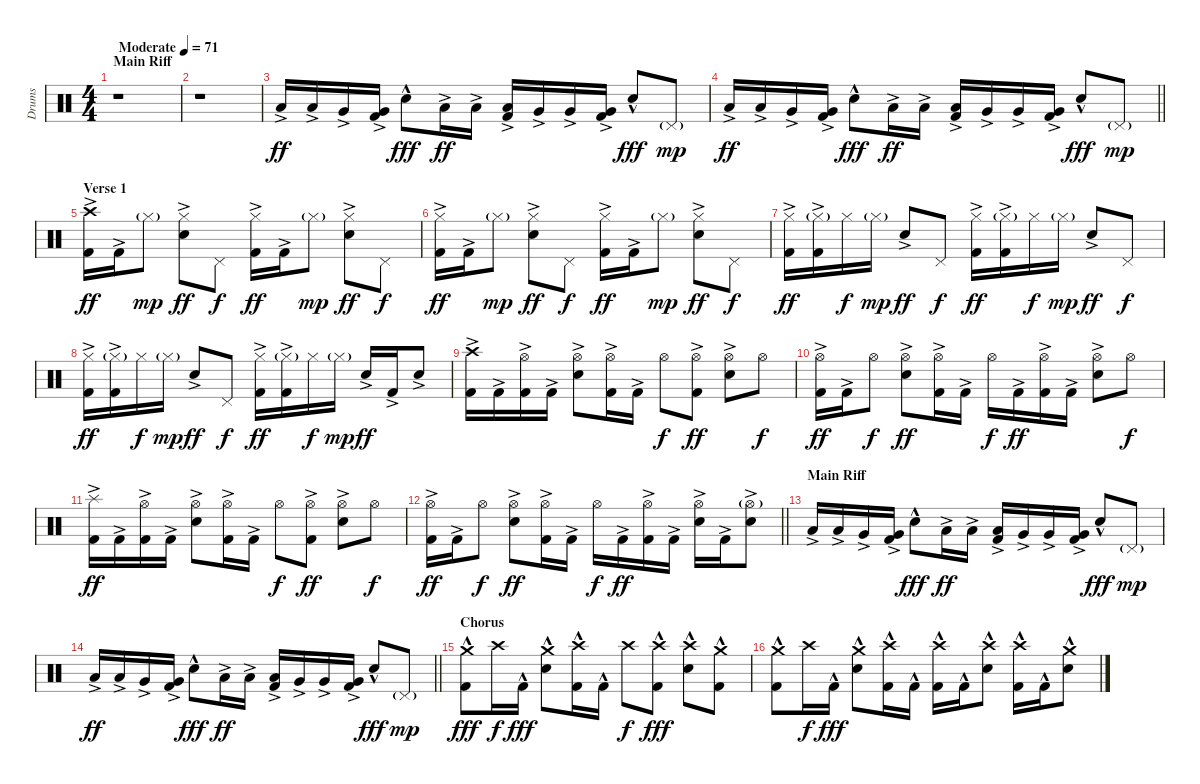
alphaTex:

\track ("Drums" "Drums") {instrument percussion}
\staff {score}
\articulation defaults
\ts (4 4)
\section ("" "Main Riff")
\tempo (71 "Moderate")
\clef neutral
\ks c
r.1{dy ff} |
r.1 |
"Low Floor Tom (hit)"{ac}.16 "Low Floor Tom (hit)"{ac}.16 "Very Low Tom (hit)"{ac}.16 ("Very Low Tom (hit)"{ac} "Kick (hit) 2"{ac}).16 "Electric Snare (hit)"{hac}.8{dy fff} "Low Floor Tom (hit)"{ac}.16{dy ff} "Low Floor Tom (hit)"{ac}.16 ("Low Floor Tom (hit)"{ac} "Kick (hit) 2"{ac}).16 "Very Low Tom (hit)"{ac}.16 "Very Low Tom (hit)"{ac}.16 ("Very Low Tom (hit)"{ac} "Kick (hit) 2"{ac}).16 "Electric Snare (hit)"{hac}.8{dy fff} "Pedal Hi-Hat (hit)"{g}.8{dy mp} |
\barLineRight lightlight "Low Floor Tom (hit)"{ac}.16{dy ff} "Low Floor Tom (hit)"{ac}.16 "Very Low Tom (hit)"{ac}.16
("Very Low Tom (hit)" "Kick (hit) 2"{ac}).16 "Electric Snare (hit)"{hac}.8{dy fff} "Low Floor Tom (hit)"{ac}.16{dy ff} "Low Floor Tom (hit)"{ac}.16 ("Low Floor Tom (hit)"{ac} "Kick (hit) 2"{ac}).16 "Very Low Tom (hit)"{ac}.16 "Very Low Tom (hit)"{ac}.16 ("Very Low Tom (hit)"{ac} "Kick (hit) 2"{ac}).16 "Electric Snare (hit)"{hac}.8{dy fff} "Pedal Hi-Hat (hit)"{g}.8{dy mp} |
\section ("" "Verse 1")
("Crash high (hit)" "Kick (hit) 2"{ac}).16{dy ff} "Kick (hit) 2"{ac}.16 "Hi-Hat (closed)"{g}.8{dy mp} ("Hi-Hat (closed)" "Electric Snare (hit)"{ac}).8{dy ff} "Pedal Hi-Hat (hit)".8{dy f} ("Hi-Hat (closed)" "Kick (hit) 2"{ac}).16{dy ff} "Kick (hit) 2"{ac}.16 "Hi-Hat (closed)"{g}.8{dy mp} ("Hi-Hat (closed)" "Electric Snare (hit)"{ac}).8{dy ff} "Pedal Hi-Hat (hit)".8{dy f} |
("Hi-Hat (closed)" "Kick (hit) 2"{ac}).16{dy ff} "Kick (hit) 2"{ac}.16 "Hi-Hat (closed)"{g}.8{dy mp} ("Hi-Hat (closed)" "Electric Snare (hit)"{ac}).8{dy ff} "Pedal Hi-Hat (hit)".8{dy f} ("Hi-Hat (closed)" "Kick (hit) 2"{ac}).16{dy ff} "Kick (hit) 2"{ac}.16 "Hi-Hat (closed)"{g}.8{dy mp} ("Hi-Hat (closed)" "Electric Snare (hit)"{ac}).8{dy ff} "Pedal Hi-Hat (hit)".8{dy f} |
("Hi-Hat (closed)" "Kick (hit) 2"{ac}).16{dy ff} ("Hi-Hat (closed)"{g} "Kick (hit) 2"{ac}).16 "Hi-Hat (closed)".16{dy f} "Hi-Hat (closed)"{g}.16{dy mp} "Electric Snare (hit)"{ac}.8{dy ff} "Pedal Hi-Hat (hit)".8{dy f} ("Hi-Hat (closed)" "Kick (hit) 2"{ac}).16{dy ff} ("Hi-Hat (closed)"{g} "Kick (hit) 2"{ac}).16 "Hi-Hat (closed)".16{dy f} "Hi-Hat (closed)"{g}.16{dy mp} "Electric Snare (hit)"{ac}.8{dy ff} "Pedal Hi-Hat (hit)".8{dy f} |
("Hi-Hat (closed)" "Kick (hit) 2"{ac}).16{dy ff} ("Hi-Hat (closed)"{g} "Kick (hit) 2"{ac}).16 "Hi-Hat (closed)".16{dy f} "Hi-Hat (closed)"{g}.16{dy mp} "Electric Snare (hit)"{ac}.8{dy ff} "Pedal Hi-Hat (hit)".8{dy f} ("Hi-Hat (closed)" "Kick (hit) 2"{ac}).16{dy ff} ("Hi-Hat (closed)"{g} "Kick (hit) 2"{ac}).16 "Hi-Hat (closed)".16{dy f} "Hi-Hat (closed)"{g}.16{dy mp} "Electric Snare (hit)"{ac}.16{dy ff} "Kick (hit) 2"{ac}.16 "Electric Snare (hit)"{ac}.8 |
("Crash high (hit)" "Kick (hit) 2"{ac}).16 "Kick (hit) 2"{ac}.16 ("Hi-Hat (open)" "Kick (hit) 2"{ac}).16 "Kick (hit) 2"{ac}.16 ("Hi-Hat (open)" "Electric Snare (hit)"{ac}).8 ("Hi-Hat (open)" "Kick (hit) 2"{ac}).16 "Kick (hit) 2"{ac}.16 "Hi-Hat (open)".8{dy f} ("Hi-Hat (open)" "Kick (hit) 2"{ac}).8{dy ff} ("Hi-Hat (open)" "Electric Snare (hit)"{ac}).8 "Hi-Hat (open)".8{dy f} |
("Hi-Hat (open)" "Kick (hit) 2"{ac}).16{dy ff} "Kick (hit) 2"{ac}.16 "Hi-Hat (open)".8{dy f} ("Hi-Hat (open)" "Electric Snare (hit)"{ac}).8{dy ff} ("Hi-Hat (open)" "Kick (hit) 2"{ac}).16 "Kick (hit) 2"{ac}.16 "Hi-Hat (open)".16{dy f} "Kick (hit) 2"{ac}.16{dy ff} ("Hi-Hat (open)" "Kick (hit) 2"{ac}).16 "Kick (hit) 2"{ac}.16 ("Hi-Hat (open)" "Electric Snare (hit)"{ac}).8 "Hi-Hat (open)".8{dy f} |
("Splash (hit)" "Kick (hit) 2"{ac}).16{dy ff} "Kick (hit) 2"{ac}.16 ("Hi-Hat (open)" "Kick (hit) 2"{ac}).16 "Kick (hit) 2"{ac}.16 ("Hi-Hat (open)" "Electric Snare (hit)"{ac}).8 ("Hi-Hat (open)" "Kick (hit) 2"{ac}).16 "Kick (hit) 2"{ac}.16 "Hi-Hat (open)".8{dy f} ("Hi-Hat (open)" "Kick (hit) 2"{ac}).8{dy ff} ("Hi-Hat (open)" "Electric Snare (hit)"{ac}).8 "Hi-Hat (open)".8{dy f} |
\barLineRight lightlight
("Hi-Hat (open)" "Kick (hit) 2"{ac}).16{dy ff} "Kick (hit) 2"{ac}.16 "Hi-Hat (open)".8{dy f} ("Hi-Hat (open)" "Electric Snare (hit)"{ac}).8{dy ff} ("Hi-Hat (open)" "Kick (hit) 2"{ac}).16 "Kick (hit) 2"{ac}.16 "Hi-Hat (open)".16{dy f} "Kick (hit) 2"{ac}.16{dy ff} ("Hi-Hat (open)" "Kick (hit) 2"{ac}).16 "Kick (hit) 2"{ac}.16 ("Hi-Hat (open)" "Electric Snare (hit)"{ac}).16 "Kick (hit) 2"{ac}.16 ("Hi-Hat (open)"{g} "Electric Snare (hit)"{ac}).8 |
\section ("" "Main Riff")
"Low Floor Tom (hit)"{ac}.16 "Low Floor Tom (hit)"{ac}.16 "Very Low Tom (hit)"{ac}.16 ("Very Low Tom (hit)"{ac} "Kick (hit) 2"{ac}).16 "Electric Snare (hit)"{hac}.8{dy fff} "Low Floor Tom (hit)"{ac}.16{dy ff} "Low Floor Tom (hit)"{ac}.16 ("Low Floor Tom (hit)"{ac} "Kick (hit) 2"{ac}).16 "Very Low Tom (hit)"{ac}.16 "Very Low Tom (hit)"{ac}.16 ("Very Low Tom (hit)"{ac} "Kick (hit) 2"{ac}).16 "Electric Snare (hit)"{hac}.8{dy fff} "Pedal Hi-Hat (hit)"{g}.8{dy mp} |
\barLineRight lightlight "Low Floor Tom (hit)"{ac}.16{dy ff} "Low Floor Tom (hit)"{ac}.16 "Very Low Tom (hit)"{ac}.16
("Very Low Tom (hit)" "Kick (hit) 2"{ac}).16 "Electric Snare (hit)"{hac}.8{dy fff} "Low Floor Tom (hit)"{ac}.16{dy ff} "Low Floor Tom (hit)"{ac}.16 ("Low Floor Tom (hit)"{ac} "Kick (hit) 2"{ac}).16 "Very Low Tom (hit)"{ac}.16 "Very Low Tom (hit)"{ac}.16 ("Very Low Tom (hit)"{ac} "Kick (hit) 2"{ac}).16 "Electric Snare (hit)"{hac}.8{dy fff} "Pedal Hi-Hat (hit)"{g}.8{dy mp} |
\section ("" "Chorus")
("Crash medium (hit)" "Kick (hit) 2"{hac}).8{dy fff} "Crash high (hit)".16{dy f} "Kick (hit) 2"{hac}.16{dy fff} ("Crash medium (hit)" "Electric Snare (hit)"{hac}).8 ("Crash high (hit)" "Kick (hit) 2"{hac}).16 "Kick (hit) 2"{hac}.16 "Crash high (hit)".8{dy f} ("Crash high (hit)" "Kick (hit) 2"{hac}).8{dy fff} ("Crash high (hit)" "Electric Snare (hit)"{hac}).8 ("Crash medium (hit)" "Kick (hit) 2"{hac}).8 |
("Crash medium (hit)" "Kick (hit) 2"{hac}).8 "Crash high (hit)".16{dy f} "Kick (hit) 2"{hac}.16{dy fff} ("Crash medium (hit)" "Electric Snare (hit)"{hac}).8 ("Crash high (hit)" "Kick (hit) 2"{hac}).16 "Kick (hit) 2"{hac}.16 ("Crash high (hit)" "Kick (hit) 2"{hac}).16 "Kick (hit) 2"{hac}.16 ("Crash high (hit)" "Electric Snare (hit)"{hac}).8 ("Crash high (hit)" "Kick (hit) 2"{hac}).16 "Kick (hit) 2"{hac}.16 ("Crash medium (hit)" "Electric Snare (hit)"{hac}).8
